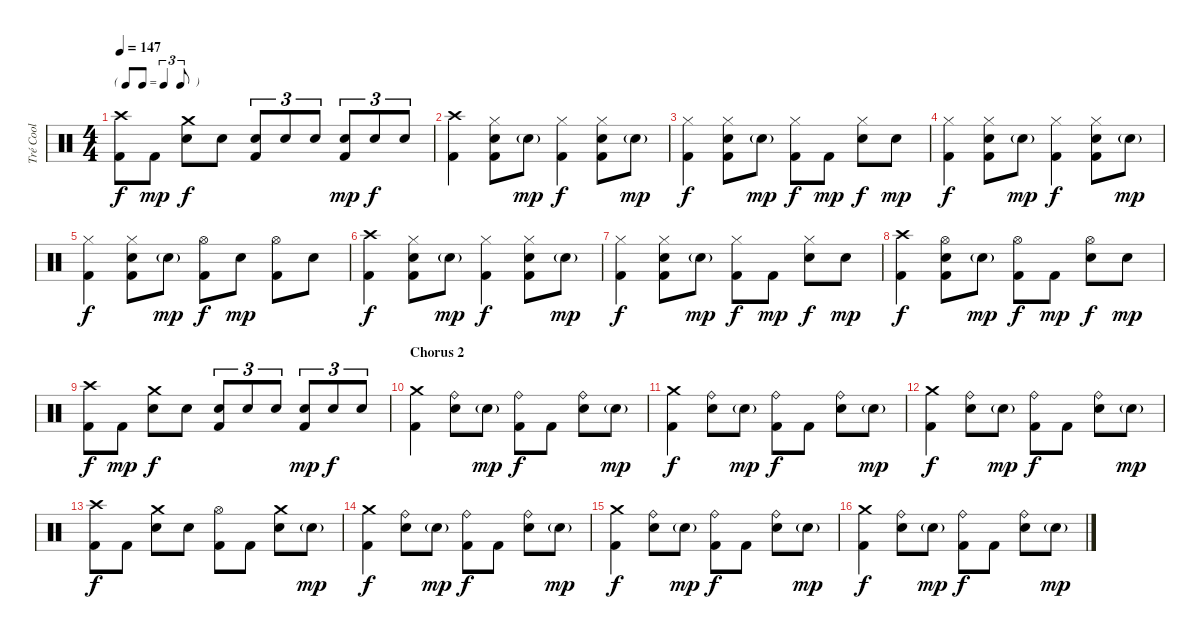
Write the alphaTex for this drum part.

\track ("Tré Cool" "Tré Cool") {instrument percussion}
\staff {score}
\articulation defaults
\ts (4 4)
\tf triplet8th
\tempo 147
\clef neutral
\ks c
("Crash high (hit)" "Kick (hit) 2").8{dy f} "Kick (hit) 2".8{dy mp} ("Crash medium (hit)" "Snare (hit) 2").8{dy f} "Snare (hit) 2".8 ("Snare (hit) 2" "Kick (hit) 2").8{tu (3 2)} "Snare (hit) 2".8{tu (3 2)} "Snare (hit) 2".8{tu (3 2)} ("Snare (hit) 2" "Kick (hit) 2").8{tu (3 2) dy mp} "Snare (hit) 2".8{tu (3 2) dy f} "Snare (hit) 2".8{tu (3 2)} |
("Crash high (hit)" "Kick (hit) 2").4 ("Hi-Hat (closed)" "Snare (hit) 2" "Kick (hit) 2").8 "Snare (hit) 2"{g}.8{dy mp} ("Hi-Hat (closed)" "Kick (hit) 2").4{dy f} ("Hi-Hat (closed)" "Snare (hit) 2" "Kick (hit) 2").8 "Snare (hit) 2"{g}.8{dy mp} |
("Hi-Hat (closed)" "Kick (hit) 2").4{dy f} ("Hi-Hat (closed)" "Snare (hit) 2" "Kick (hit) 2").8 "Snare (hit) 2"{g}.8{dy mp} ("Hi-Hat (closed)" "Kick (hit) 2").8{dy f} "Kick (hit) 2".8{dy mp} ("Hi-Hat (closed)" "Snare (hit) 2").8{dy f} "Snare (hit) 2".8{dy mp} |
("Hi-Hat (closed)" "Kick (hit) 2").4{dy f} ("Hi-Hat (closed)" "Snare (hit) 2" "Kick (hit) 2").8 "Snare (hit) 2"{g}.8{dy mp} ("Hi-Hat (closed)" "Kick (hit) 2").4{dy f} ("Hi-Hat (closed)" "Snare (hit) 2" "Kick (hit) 2").8 "Snare (hit) 2"{g}.8{dy mp} |
("Hi-Hat (closed)" "Kick (hit) 2").4{dy f} ("Hi-Hat (closed)" "Snare (hit) 2" "Kick (hit) 2").8 "Snare (hit) 2"{g}.8{dy mp} ("Hi-Hat (open)" "Kick (hit) 2").8{dy f} "Snare (hit) 2".8{dy mp} ("Hi-Hat (open)" "Kick (hit) 2").8 "Snare (hit) 2".8 |
("Crash high (hit)" "Kick (hit) 2").4{dy f} ("Hi-Hat (closed)" "Snare (hit) 2" "Kick (hit) 2").8 "Snare (hit) 2"{g}.8{dy mp} ("Hi-Hat (closed)" "Kick (hit) 2").4{dy f} ("Hi-Hat (closed)" "Snare (hit) 2" "Kick (hit) 2").8 "Snare (hit) 2"{g}.8{dy mp} |
("Hi-Hat (closed)" "Kick (hit) 2").4{dy f} ("Hi-Hat (closed)" "Snare (hit) 2" "Kick (hit) 2").8 "Snare (hit) 2"{g}.8{dy mp} ("Hi-Hat (closed)" "Kick (hit) 2").8{dy f} "Kick (hit) 2".8{dy mp} ("Hi-Hat (closed)" "Snare (hit) 2").8{dy f} "Snare (hit) 2".8{dy mp} |
("Crash high (hit)" "Kick (hit) 2").4{dy f} ("Hi-Hat (open)" "Snare (hit) 2" "Kick (hit) 2").8 "Snare (hit) 2"{g}.8{dy mp} ("Hi-Hat (open)" "Kick (hit) 2").8{dy f} "Kick (hit) 2".8{dy mp} ("Hi-Hat (open)" "Snare (hit) 2").8{dy f} "Snare (hit) 2".8{dy mp} |
("Crash high (hit)" "Kick (hit) 2").8{dy f} "Kick (hit) 2".8{dy mp} ("Crash medium (hit)" "Snare (hit) 2").8{dy f} "Snare (hit) 2".8 ("Snare (hit) 2" "Kick (hit) 2").8{tu (3 2)} "Snare (hit) 2".8{tu (3 2)} "Snare (hit) 2".8{tu (3 2)} ("Snare (hit) 2" "Kick (hit) 2").8{tu (3 2) dy mp} "Snare (hit) 2".8{tu (3 2) dy f} "Snare (hit) 2".8{tu (3 2)} |
\section ("" "Chorus 2")
("Crash medium (hit)" "Kick (hit) 2").4 ("Ride (bell)" "Snare (hit) 2").8 "Snare (hit) 2"{g}.8{dy mp} ("Ride (bell)" "Kick (hit) 2").8{dy f} "Kick (hit) 2".8 ("Ride (bell)" "Snare (hit) 2").8 "Snare (hit) 2"{g}.8{dy mp} |
("Crash medium (hit)" "Kick (hit) 2").4{dy f} ("Ride (bell)" "Snare (hit) 2").8 "Snare (hit) 2"{g}.8{dy mp} ("Ride (bell)" "Kick (hit) 2").8{dy f} "Kick (hit) 2".8 ("Ride (bell)" "Snare (hit) 2").8 "Snare (hit) 2"{g}.8{dy mp} |
("Crash medium (hit)" "Kick (hit) 2").4{dy f} ("Ride (bell)" "Snare (hit) 2").8 "Snare (hit) 2"{g}.8{dy mp} ("Ride (bell)" "Kick (hit) 2").8{dy f} "Kick (hit) 2".8 ("Ride (bell)" "Snare (hit) 2").8 "Snare (hit) 2"{g}.8{dy mp} |
("Crash high (hit)" "Kick (hit) 2").8{dy f} "Kick (hit) 2".8 ("Crash medium (hit)" "Snare (hit) 2").8 "Snare (hit) 2".8 ("Hi-Hat (open)" "Kick (hit) 2").8 "Kick (hit) 2".8 ("Crash medium (hit)" "Snare (hit) 2").8 "Snare (hit) 2"{g}.8{dy mp} |
("Crash medium (hit)" "Kick (hit) 2").4{dy f} ("Ride (bell)" "Snare (hit) 2").8 "Snare (hit) 2"{g}.8{dy mp} ("Ride (bell)" "Kick (hit) 2").8{dy f} "Kick (hit) 2".8 ("Ride (bell)" "Snare (hit) 2").8 "Snare (hit) 2"{g}.8{dy mp} |
("Crash medium (hit)" "Kick (hit) 2").4{dy f} ("Ride (bell)" "Snare (hit) 2").8 "Snare (hit) 2"{g}.8{dy mp} ("Ride (bell)" "Kick (hit) 2").8{dy f} "Kick (hit) 2".8 ("Ride (bell)" "Snare (hit) 2").8 "Snare (hit) 2"{g}.8{dy mp} |
("Crash medium (hit)" "Kick (hit) 2").4{dy f} ("Ride (bell)" "Snare (hit) 2").8 "Snare (hit) 2"{g}.8{dy mp} ("Ride (bell)" "Kick (hit) 2").8{dy f} "Kick (hit) 2".8 ("Ride (bell)" "Snare (hit) 2").8 "Snare (hit) 2"{g}.8{dy mp}
